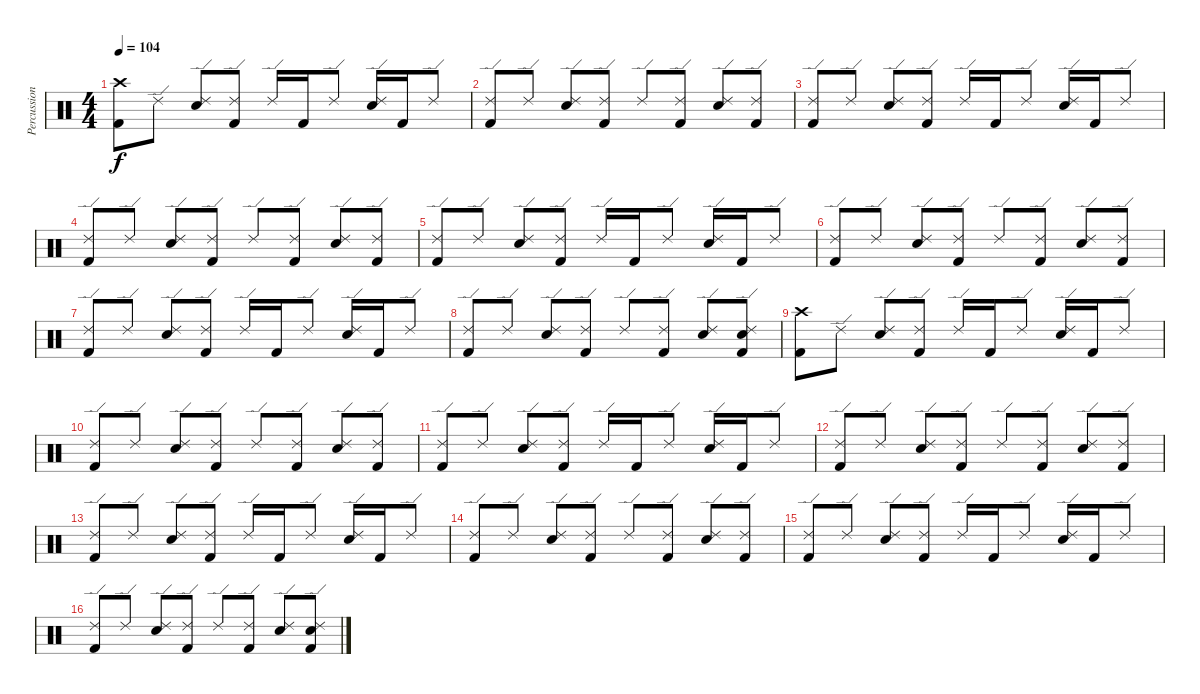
\track ("Percussion" "Percussion") {instrument percussion}
\staff {score}
\articulation defaults
\ts (4 4)
\tempo 104
\clef neutral
\ks c
("Crash high (hit)" "Kick (hit) 2").8{dy f} "Ride (edge) 2".8 ("Ride (edge) 2" "Snare (hit) 2").8 ("Ride (edge) 2" "Kick (hit) 2").8 "Ride (edge) 2".16 "Kick (hit) 2".16 "Ride (edge) 2".8 ("Ride (edge) 2" "Snare (hit) 2").16 "Kick (hit) 2".16 "Ride (edge) 2".8 |
("Ride (edge) 2" "Kick (hit) 2").8 "Ride (edge) 2".8 ("Ride (edge) 2" "Snare (hit) 2").8 ("Ride (edge) 2" "Kick (hit) 2").8 "Ride (edge) 2".8 ("Ride (edge) 2" "Kick (hit) 2").8 ("Ride (edge) 2" "Snare (hit) 2").8 ("Ride (edge) 2" "Kick (hit) 2").8 |
("Ride (edge) 2" "Kick (hit) 2").8 "Ride (edge) 2".8 ("Ride (edge) 2" "Snare (hit) 2").8 ("Ride (edge) 2" "Kick (hit) 2").8 "Ride (edge) 2".16 "Kick (hit) 2".16 "Ride (edge) 2".8 ("Ride (edge) 2" "Snare (hit) 2").16 "Kick (hit) 2".16 "Ride (edge) 2".8 |
("Ride (edge) 2" "Kick (hit) 2").8 "Ride (edge) 2".8 ("Ride (edge) 2" "Snare (hit) 2").8 ("Ride (edge) 2" "Kick (hit) 2").8 "Ride (edge) 2".8 ("Ride (edge) 2" "Kick (hit) 2").8 ("Ride (edge) 2" "Snare (hit) 2").8 ("Ride (edge) 2" "Kick (hit) 2").8 |
("Ride (edge) 2" "Kick (hit) 2").8 "Ride (edge) 2".8 ("Ride (edge) 2" "Snare (hit) 2").8 ("Ride (edge) 2" "Kick (hit) 2").8 "Ride (edge) 2".16 "Kick (hit) 2".16 "Ride (edge) 2".8 ("Ride (edge) 2" "Snare (hit) 2").16 "Kick (hit) 2".16 "Ride (edge) 2".8 |
("Ride (edge) 2" "Kick (hit) 2").8 "Ride (edge) 2".8 ("Ride (edge) 2" "Snare (hit) 2").8 ("Ride (edge) 2" "Kick (hit) 2").8 "Ride (edge) 2".8 ("Ride (edge) 2" "Kick (hit) 2").8 ("Ride (edge) 2" "Snare (hit) 2").8 ("Ride (edge) 2" "Kick (hit) 2").8 |
("Ride (edge) 2" "Kick (hit) 2").8 "Ride (edge) 2".8 ("Ride (edge) 2" "Snare (hit) 2").8 ("Ride (edge) 2" "Kick (hit) 2").8 "Ride (edge) 2".16 "Kick (hit) 2".16 "Ride (edge) 2".8 ("Ride (edge) 2" "Snare (hit) 2").16 "Kick (hit) 2".16 "Ride (edge) 2".8 |
("Ride (edge) 2" "Kick (hit) 2").8 "Ride (edge) 2".8 ("Ride (edge) 2" "Snare (hit) 2").8 ("Ride (edge) 2" "Kick (hit) 2").8 "Ride (edge) 2".8 ("Ride (edge) 2" "Kick (hit) 2").8 ("Ride (edge) 2" "Snare (hit) 2").8 ("Ride (edge) 2" "Snare (hit) 2" "Kick (hit) 2").8 |
("Crash high (hit)" "Kick (hit) 2").8 "Ride (edge) 2".8 ("Ride (edge) 2" "Snare (hit) 2").8 ("Ride (edge) 2" "Kick (hit) 2").8 "Ride (edge) 2".16 "Kick (hit) 2".16 "Ride (edge) 2".8 ("Ride (edge) 2" "Snare (hit) 2").16 "Kick (hit) 2".16 "Ride (edge) 2".8 |
("Ride (edge) 2" "Kick (hit) 2").8 "Ride (edge) 2".8 ("Ride (edge) 2" "Snare (hit) 2").8 ("Ride (edge) 2" "Kick (hit) 2").8 "Ride (edge) 2".8 ("Ride (edge) 2" "Kick (hit) 2").8 ("Ride (edge) 2" "Snare (hit) 2").8 ("Ride (edge) 2" "Kick (hit) 2").8 |
("Ride (edge) 2" "Kick (hit) 2").8 "Ride (edge) 2".8 ("Ride (edge) 2" "Snare (hit) 2").8 ("Ride (edge) 2" "Kick (hit) 2").8 "Ride (edge) 2".16 "Kick (hit) 2".16 "Ride (edge) 2".8 ("Ride (edge) 2" "Snare (hit) 2").16 "Kick (hit) 2".16 "Ride (edge) 2".8 |
("Ride (edge) 2" "Kick (hit) 2").8 "Ride (edge) 2".8 ("Ride (edge) 2" "Snare (hit) 2").8 ("Ride (edge) 2" "Kick (hit) 2").8 "Ride (edge) 2".8 ("Ride (edge) 2" "Kick (hit) 2").8 ("Ride (edge) 2" "Snare (hit) 2").8 ("Ride (edge) 2" "Kick (hit) 2").8 |
("Ride (edge) 2" "Kick (hit) 2").8 "Ride (edge) 2".8 ("Ride (edge) 2" "Snare (hit) 2").8 ("Ride (edge) 2" "Kick (hit) 2").8 "Ride (edge) 2".16 "Kick (hit) 2".16 "Ride (edge) 2".8 ("Ride (edge) 2" "Snare (hit) 2").16 "Kick (hit) 2".16 "Ride (edge) 2".8 |
("Ride (edge) 2" "Kick (hit) 2").8 "Ride (edge) 2".8 ("Ride (edge) 2" "Snare (hit) 2").8 ("Ride (edge) 2" "Kick (hit) 2").8 "Ride (edge) 2".8 ("Ride (edge) 2" "Kick (hit) 2").8 ("Ride (edge) 2" "Snare (hit) 2").8 ("Ride (edge) 2" "Kick (hit) 2").8 |
("Ride (edge) 2" "Kick (hit) 2").8 "Ride (edge) 2".8 ("Ride (edge) 2" "Snare (hit) 2").8 ("Ride (edge) 2" "Kick (hit) 2").8 "Ride (edge) 2".16 "Kick (hit) 2".16 "Ride (edge) 2".8 ("Ride (edge) 2" "Snare (hit) 2").16 "Kick (hit) 2".16 "Ride (edge) 2".8 |
("Ride (edge) 2" "Kick (hit) 2").8 "Ride (edge) 2".8 ("Ride (edge) 2" "Snare (hit) 2").8 ("Ride (edge) 2" "Kick (hit) 2").8 "Ride (edge) 2".8 ("Ride (edge) 2" "Kick (hit) 2").8 ("Ride (edge) 2" "Snare (hit) 2").8 ("Ride (edge) 2" "Snare (hit) 2" "Kick (hit) 2").8
